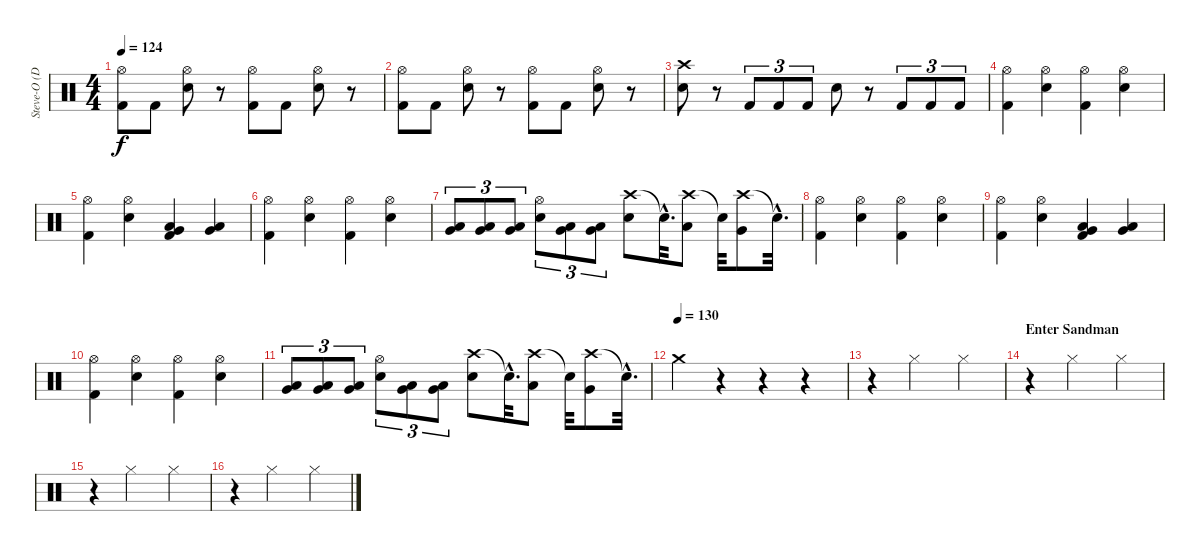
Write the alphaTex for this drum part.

\track ("Steve-O (Drums)" "Steve-O (D") {instrument percussion}
\staff {score}
\articulation defaults
\ts (4 4)
\tempo 124
\clef neutral
\ks c
("Hi-Hat (open)" "Kick (hit) 2").8{dy f} "Kick (hit) 2".8 ("Hi-Hat (open)" "Electric Snare (hit)").8 r.8 ("Hi-Hat (open)" "Kick (hit) 2").8 "Kick (hit) 2".8 ("Hi-Hat (open)" "Electric Snare (hit)").8 r.8 |
("Hi-Hat (open)" "Kick (hit) 2").8 "Kick (hit) 2".8 ("Hi-Hat (open)" "Electric Snare (hit)").8 r.8 ("Hi-Hat (open)" "Kick (hit) 2").8 "Kick (hit) 2".8 ("Hi-Hat (open)" "Electric Snare (hit)").8 r.8 |
("Crash high (hit)" "Electric Snare (hit)").8 r.8 "Kick (hit) 2".8{tu (3 2)} "Kick (hit) 2".8{tu (3 2)} "Kick (hit) 2".8{tu (3 2)} "Electric Snare (hit)".8 r.8 "Kick (hit) 2".8{tu (3 2)} "Kick (hit) 2".8{tu (3 2)} "Kick (hit) 2".8{tu (3 2)} |
("Hi-Hat (open)" "Kick (hit) 2").4 ("Hi-Hat (open)" "Electric Snare (hit)").4 ("Hi-Hat (open)" "Kick (hit) 2").4 ("Hi-Hat (open)" "Electric Snare (hit)").4 |
("Hi-Hat (open)" "Kick (hit) 2").4 ("Hi-Hat (open)" "Electric Snare (hit)").4 ("Low Floor Tom (hit)" "Very Low Tom (hit)" "Kick (hit) 2").4 ("Very Low Tom (hit)" "Low Floor Tom (hit)").4 |
("Hi-Hat (open)" "Kick (hit) 2").4 ("Hi-Hat (open)" "Electric Snare (hit)").4 ("Hi-Hat (open)" "Kick (hit) 2").4 ("Hi-Hat (open)" "Electric Snare (hit)").4 |
("Low Floor Tom (hit)" "Very Low Tom (hit)").8{tu (3 2)} ("Low Floor Tom (hit)" "Very Low Tom (hit)").8{tu (3 2)} ("Low Floor Tom (hit)" "Very Low Tom (hit)").8{tu (3 2)} ("Hi-Hat (open)" "Electric Snare (hit)").8{tu (3 2)} ("Low Floor Tom (hit)" "Very Low Tom (hit)").8{tu (3 2)} ("Low Floor Tom (hit)" "Very Low Tom (hit)").8{tu (3 2)} ("Crash high (hit)" "Electric Snare (hit)").8 "Snare (hit)"{hac t}.32{d} ("Crash high (hit)" "Low Floor Tom (hit)").8 "Snare (hit)"{t}.32 ("Crash high (hit)" "Very Low Tom (hit)").8 "Snare (hit)"{hac t}.32{d} |
("Hi-Hat (open)" "Kick (hit) 2").4 ("Hi-Hat (open)" "Electric Snare (hit)").4 ("Hi-Hat (open)" "Kick (hit) 2").4 ("Hi-Hat (open)" "Electric Snare (hit)").4 |
("Hi-Hat (open)" "Kick (hit) 2").4 ("Hi-Hat (open)" "Electric Snare (hit)").4 ("Very Low Tom (hit)" "Low Floor Tom (hit)" "Kick (hit) 2").4 ("Very Low Tom (hit)" "Low Floor Tom (hit)").4 |
("Hi-Hat (open)" "Kick (hit) 2").4 ("Hi-Hat (open)" "Electric Snare (hit)").4 ("Hi-Hat (open)" "Kick (hit) 2").4 ("Hi-Hat (open)" "Electric Snare (hit)").4 |
("Low Floor Tom (hit)" "Very Low Tom (hit)").8{tu (3 2)} ("Low Floor Tom (hit)" "Very Low Tom (hit)").8{tu (3 2)} ("Low Floor Tom (hit)" "Very Low Tom (hit)").8{tu (3 2)} ("Hi-Hat (open)" "Electric Snare (hit)").8{tu (3 2)} ("Low Floor Tom (hit)" "Very Low Tom (hit)").8{tu (3 2)} ("Low Floor Tom (hit)" "Very Low Tom (hit)").8{tu (3 2)} ("Crash high (hit)" "Electric Snare (hit)").8 "Snare (hit)"{hac t}.32{d} ("Crash high (hit)" "Low Floor Tom (hit)").8 "Snare (hit)"{t}.32 ("Crash high (hit)" "Very Low Tom (hit)").8 "Snare (hit)"{hac t}.32{d} |
\tempo (130)
"Crash medium (hit)".4 r.4 r.4 r.4 |
r.4 "Hi-Hat (closed)".2 "Hi-Hat (closed)".4 |
\section ("" "Enter Sandman")
r.4 "Hi-Hat (closed)".2 "Hi-Hat (closed)".4 |
r.4 "Hi-Hat (closed)".2 "Hi-Hat (closed)".4 |
r.4 "Hi-Hat (closed)".2 "Hi-Hat (closed)".4
